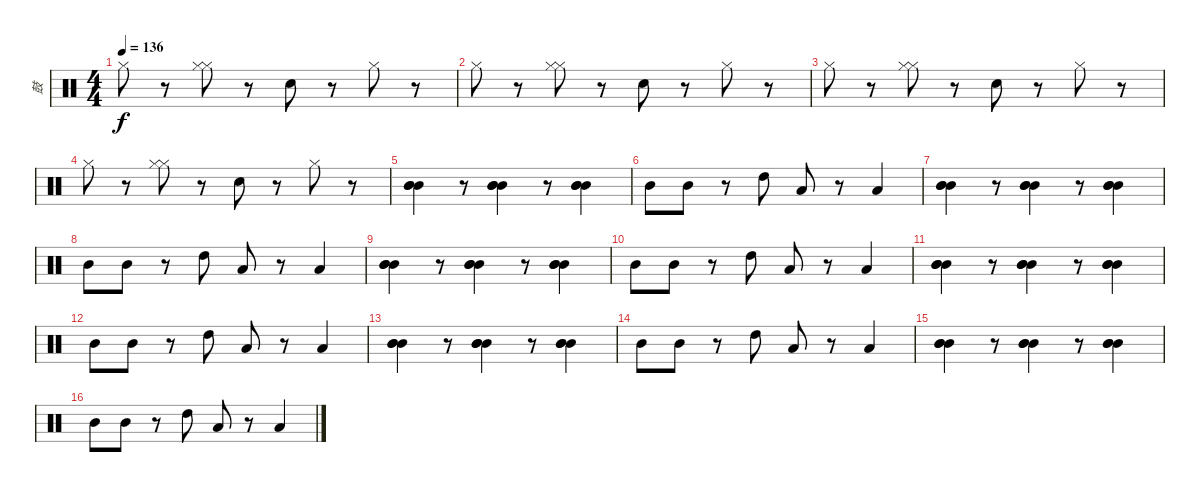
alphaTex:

\track ("鼓" "鼓") {instrument percussion}
\staff {score}
\articulation defaults
\ts (4 4)
\tempo 136
\clef neutral
\ks c "Hi-Hat (closed)".8{dy f}
r.8 ("Hi-Hat (closed)" "Hi-Hat (closed)").8 r.8 "Snare (hit) 2".8 r.8 "Hi-Hat (closed)".8 r.8 |
"Hi-Hat (closed)".8 r.8 ("Hi-Hat (closed)" "Hi-Hat (closed)").8 r.8 "Snare (hit) 2".8 r.8 "Hi-Hat (closed)".8 r.8 |
"Hi-Hat (closed)".8 r.8 ("Hi-Hat (closed)" "Hi-Hat (closed)").8 r.8 "Snare (hit) 2".8 r.8 "Hi-Hat (closed)".8 r.8 |
"Hi-Hat (closed)".8 r.8 ("Hi-Hat (closed)" "Hi-Hat (closed)").8 r.8 "Snare (hit) 2".8 r.8 "Hi-Hat (closed)".8 r.8 |
("Mid Tom (hit)" "Mid Tom (hit)" "Mid Tom (hit)").4 r.8 ("Mid Tom (hit)" "Mid Tom (hit)" "Mid Tom (hit)").4 r.8 ("Mid Tom (hit)" "Mid Tom (hit)" "Mid Tom (hit)").4 |
"Mid Tom (hit)".8 "Mid Tom (hit)".8 r.8 "High Tom (hit)".8 "Low Floor Tom (hit)".8 r.8 "Low Tom (hit)".4 |
("Mid Tom (hit)" "Mid Tom (hit)" "Mid Tom (hit)").4 r.8 ("Mid Tom (hit)" "Mid Tom (hit)" "Mid Tom (hit)").4 r.8 ("Mid Tom (hit)" "Mid Tom (hit)" "Mid Tom (hit)").4 |
"Mid Tom (hit)".8 "Mid Tom (hit)".8 r.8 "High Tom (hit)".8 "Low Floor Tom (hit)".8 r.8 "Low Tom (hit)".4 |
("Mid Tom (hit)" "Mid Tom (hit)" "Mid Tom (hit)").4 r.8 ("Mid Tom (hit)" "Mid Tom (hit)" "Mid Tom (hit)").4 r.8 ("Mid Tom (hit)" "Mid Tom (hit)" "Mid Tom (hit)").4 |
"Mid Tom (hit)".8 "Mid Tom (hit)".8 r.8 "High Tom (hit)".8 "Low Floor Tom (hit)".8 r.8 "Low Tom (hit)".4 |
("Mid Tom (hit)" "Mid Tom (hit)" "Mid Tom (hit)").4 r.8 ("Mid Tom (hit)" "Mid Tom (hit)" "Mid Tom (hit)").4 r.8 ("Mid Tom (hit)" "Mid Tom (hit)" "Mid Tom (hit)").4 |
"Mid Tom (hit)".8 "Mid Tom (hit)".8 r.8 "High Tom (hit)".8 "Low Floor Tom (hit)".8 r.8 "Low Tom (hit)".4 |
("Mid Tom (hit)" "Mid Tom (hit)" "Mid Tom (hit)").4 r.8 ("Mid Tom (hit)" "Mid Tom (hit)" "Mid Tom (hit)").4 r.8 ("Mid Tom (hit)" "Mid Tom (hit)" "Mid Tom (hit)").4 |
"Mid Tom (hit)".8 "Mid Tom (hit)".8 r.8 "High Tom (hit)".8 "Low Floor Tom (hit)".8 r.8 "Low Tom (hit)".4 |
("Mid Tom (hit)" "Mid Tom (hit)" "Mid Tom (hit)").4 r.8 ("Mid Tom (hit)" "Mid Tom (hit)" "Mid Tom (hit)").4 r.8 ("Mid Tom (hit)" "Mid Tom (hit)" "Mid Tom (hit)").4 |
"Mid Tom (hit)".8 "Mid Tom (hit)".8 r.8 "High Tom (hit)".8 "Low Floor Tom (hit)".8 r.8 "Low Tom (hit)".4
